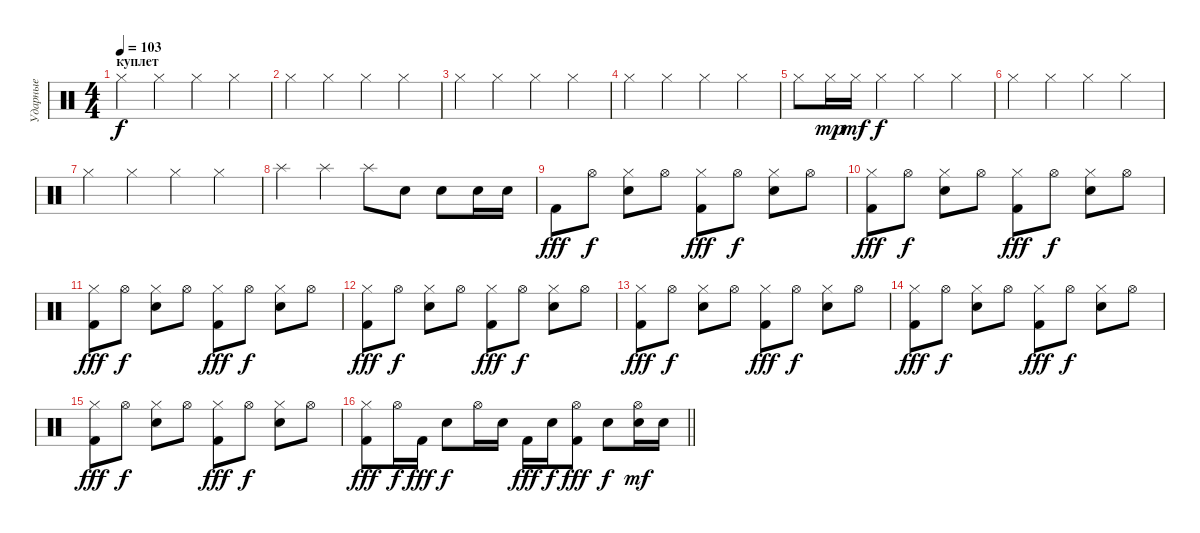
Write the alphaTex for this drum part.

\track ("Ударные" "Ударные") {instrument percussion}
\staff {score}
\articulation defaults
\ts (4 4)
\section ("" "куплет")
\tempo 103
\clef neutral
\ks c "Hi-Hat (closed)".4{dy f} "Hi-Hat (closed)".4 "Hi-Hat (closed)".4 "Hi-Hat (closed)".4
|
"Hi-Hat (closed)".4 "Hi-Hat (closed)".4 "Hi-Hat (closed)".4 "Hi-Hat (closed)".4 |
"Hi-Hat (closed)".4 "Hi-Hat (closed)".4 "Hi-Hat (closed)".4 "Hi-Hat (closed)".4 |
"Hi-Hat (closed)".4 "Hi-Hat (closed)".4 "Hi-Hat (closed)".4 "Hi-Hat (closed)".4 |
"Hi-Hat (closed)".8 "Hi-Hat (closed)".16{dy mp} "Hi-Hat (closed)".16{dy mf} "Hi-Hat (closed)".4{dy f} "Hi-Hat (closed)".4 "Hi-Hat (closed)".4 |
"Hi-Hat (closed)".4 "Hi-Hat (closed)".4 "Hi-Hat (closed)".4 "Hi-Hat (closed)".4 |
"Hi-Hat (closed)".4 "Hi-Hat (closed)".4 "Hi-Hat (closed)".4 "Hi-Hat (closed)".4 |
"Splash (hit)".4 "Splash (hit)".4 "Splash (hit)".8 "Electric Snare (hit)".8 "Electric Snare (hit)".8 "Electric Snare (hit)".16 "Electric Snare (hit)".16 |
"Kick (hit) 2".8{dy fff} "Hi-Hat (open)".8{dy f} ("Hi-Hat (closed)" "Electric Snare (hit)").8 "Hi-Hat (open)".8 ("Hi-Hat (closed)" "Kick (hit) 2").8{dy fff} "Hi-Hat (open)".8{dy f} ("Hi-Hat (closed)" "Electric Snare (hit)").8 "Hi-Hat (open)".8 |
("Hi-Hat (closed)" "Kick (hit) 2").8{dy fff} "Hi-Hat (open)".8{dy f} ("Hi-Hat (closed)" "Electric Snare (hit)").8 "Hi-Hat (open)".8 ("Hi-Hat (closed)" "Kick (hit) 2").8{dy fff} "Hi-Hat (open)".8{dy f} ("Hi-Hat (closed)" "Electric Snare (hit)").8 "Hi-Hat (open)".8 |
("Hi-Hat (closed)" "Kick (hit) 2").8{dy fff} "Hi-Hat (open)".8{dy f} ("Hi-Hat (closed)" "Electric Snare (hit)").8 "Hi-Hat (open)".8 ("Hi-Hat (closed)" "Kick (hit) 2").8{dy fff} "Hi-Hat (open)".8{dy f} ("Hi-Hat (closed)" "Electric Snare (hit)").8 "Hi-Hat (open)".8 |
("Hi-Hat (closed)" "Kick (hit) 2").8{dy fff} "Hi-Hat (open)".8{dy f} ("Hi-Hat (closed)" "Electric Snare (hit)").8 "Hi-Hat (open)".8 ("Hi-Hat (closed)" "Kick (hit) 2").8{dy fff} "Hi-Hat (open)".8{dy f} ("Hi-Hat (closed)" "Electric Snare (hit)").8 "Hi-Hat (open)".8 |
("Hi-Hat (closed)" "Kick (hit) 2").8{dy fff} "Hi-Hat (open)".8{dy f} ("Hi-Hat (closed)" "Electric Snare (hit)").8 "Hi-Hat (open)".8 ("Hi-Hat (closed)" "Kick (hit) 2").8{dy fff} "Hi-Hat (open)".8{dy f} ("Hi-Hat (closed)" "Electric Snare (hit)").8 "Hi-Hat (open)".8 |
("Hi-Hat (closed)" "Kick (hit) 2").8{dy fff} "Hi-Hat (open)".8{dy f} ("Hi-Hat (closed)" "Electric Snare (hit)").8 "Hi-Hat (open)".8 ("Hi-Hat (closed)" "Kick (hit) 2").8{dy fff} "Hi-Hat (open)".8{dy f} ("Hi-Hat (closed)" "Electric Snare (hit)").8 "Hi-Hat (open)".8 |
("Hi-Hat (closed)" "Kick (hit) 2").8{dy fff} "Hi-Hat (open)".8{dy f} ("Hi-Hat (closed)" "Electric Snare (hit)").8 "Hi-Hat (open)".8 ("Hi-Hat (closed)" "Kick (hit) 2").8{dy fff} "Hi-Hat (open)".8{dy f} ("Hi-Hat (closed)" "Electric Snare (hit)").8 "Hi-Hat (open)".8 |
\barLineRight lightlight
("Hi-Hat (closed)" "Kick (hit) 2").8{dy fff} "Hi-Hat (open)".16{dy f} "Kick (hit) 2".16{dy fff} "Electric Snare (hit)".8{dy f} "Hi-Hat (open)".16 "Electric Snare (hit)".16 "Kick (hit) 2".16{dy fff} "Electric Snare (hit)".16{dy f} ("Hi-Hat (open)" "Kick (hit) 2").8{dy fff} "Electric Snare (hit)".8{dy f} ("Hi-Hat (open)" "Electric Snare (hit)").16{dy mf} "Electric Snare (hit)".16
